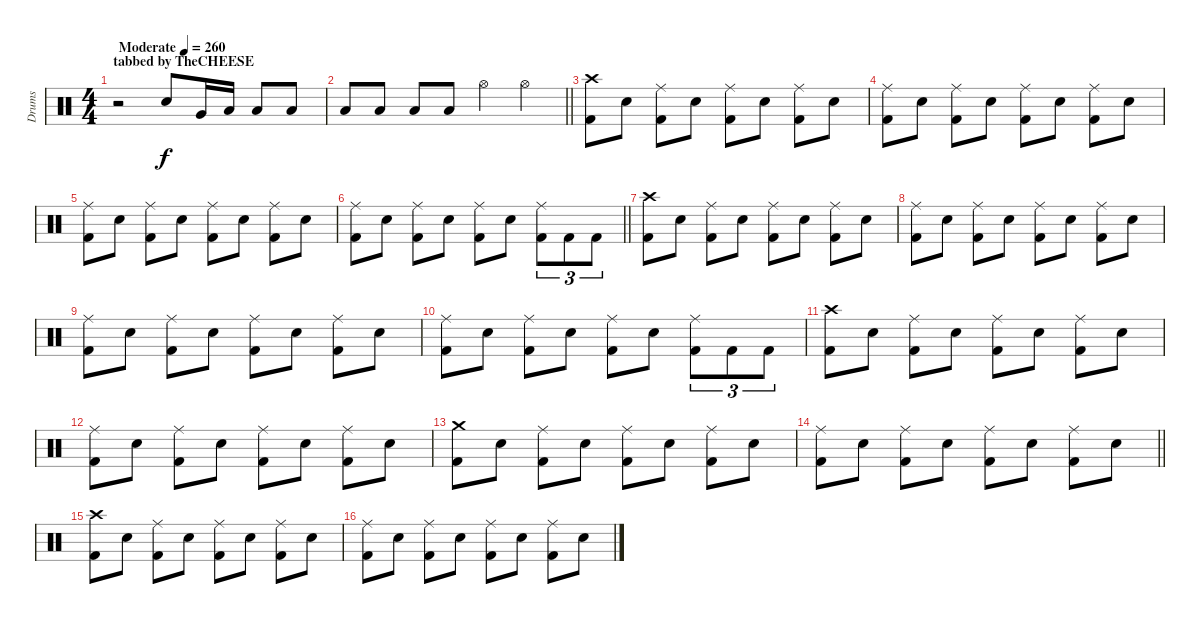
\track ("Drums" "Drums") {instrument percussion}
\staff {score}
\articulation defaults
\ts (4 4)
\section ("" "tabbed by TheCHEESE")
\tempo (260 "Moderate")
\clef neutral
\ks c
r.2{dy f} "Electric Snare (hit)".8 "Very Low Tom (hit)".16 "Low Floor Tom (hit)".16 "Low Tom (hit)".8 "Low Tom (hit)".8 |
\barLineRight lightlight "Low Floor Tom (hit)".8 "Low Floor Tom (hit)".8 "Low Floor Tom (hit)".8 "Low Floor Tom (hit)".8 "Hi-Hat (open)".4 "Hi-Hat (open)".4
|
("Crash high (hit)" "Kick (hit) 2").8 "Electric Snare (hit)".8 ("Ride (middle)" "Kick (hit) 2").8 "Electric Snare (hit)".8 ("Ride (middle)" "Kick (hit) 2").8 "Electric Snare (hit)".8 ("Ride (middle)" "Kick (hit) 2").8 "Electric Snare (hit)".8 |
("Ride (middle)" "Kick (hit) 2").8 "Electric Snare (hit)".8 ("Ride (middle)" "Kick (hit) 2").8 "Electric Snare (hit)".8 ("Ride (middle)" "Kick (hit) 2").8 "Electric Snare (hit)".8 ("Ride (middle)" "Kick (hit) 2").8 "Electric Snare (hit)".8 |
("Ride (middle)" "Kick (hit) 2").8 "Electric Snare (hit)".8 ("Ride (middle)" "Kick (hit) 2").8 "Electric Snare (hit)".8 ("Ride (middle)" "Kick (hit) 2").8 "Electric Snare (hit)".8 ("Ride (middle)" "Kick (hit) 2").8 "Electric Snare (hit)".8 |
\barLineRight lightlight
("Ride (middle)" "Kick (hit) 2").8 "Electric Snare (hit)".8 ("Ride (middle)" "Kick (hit) 2").8 "Electric Snare (hit)".8 ("Ride (middle)" "Kick (hit) 2").8 "Electric Snare (hit)".8 ("Ride (middle)" "Kick (hit) 2").8{tu (3 2)} "Kick (hit) 2".8{tu (3 2)} "Kick (hit) 2".8{tu (3 2)} |
("Crash high (hit)" "Kick (hit) 2").8 "Electric Snare (hit)".8 ("Ride (middle)" "Kick (hit) 2").8 "Electric Snare (hit)".8 ("Ride (middle)" "Kick (hit) 2").8 "Electric Snare (hit)".8 ("Ride (middle)" "Kick (hit) 2").8 "Electric Snare (hit)".8 |
("Ride (middle)" "Kick (hit) 2").8 "Electric Snare (hit)".8 ("Ride (middle)" "Kick (hit) 2").8 "Electric Snare (hit)".8 ("Ride (middle)" "Kick (hit) 2").8 "Electric Snare (hit)".8 ("Ride (middle)" "Kick (hit) 2").8 "Electric Snare (hit)".8 |
("Ride (middle)" "Kick (hit) 2").8 "Electric Snare (hit)".8 ("Ride (middle)" "Kick (hit) 2").8 "Electric Snare (hit)".8 ("Ride (middle)" "Kick (hit) 2").8 "Electric Snare (hit)".8 ("Ride (middle)" "Kick (hit) 2").8 "Electric Snare (hit)".8 |
("Ride (middle)" "Kick (hit) 2").8 "Electric Snare (hit)".8 ("Ride (middle)" "Kick (hit) 2").8 "Electric Snare (hit)".8 ("Ride (middle)" "Kick (hit) 2").8 "Electric Snare (hit)".8 ("Ride (middle)" "Kick (hit) 2").8{tu (3 2)} "Kick (hit) 2".8{tu (3 2)} "Kick (hit) 2".8{tu (3 2)} |
("Crash high (hit)" "Kick (hit) 2").8 "Electric Snare (hit)".8 ("Ride (middle)" "Kick (hit) 2").8 "Electric Snare (hit)".8 ("Ride (middle)" "Kick (hit) 2").8 "Electric Snare (hit)".8 ("Ride (middle)" "Kick (hit) 2").8 "Electric Snare (hit)".8 |
("Ride (middle)" "Kick (hit) 2").8 "Electric Snare (hit)".8 ("Ride (middle)" "Kick (hit) 2").8 "Electric Snare (hit)".8 ("Ride (middle)" "Kick (hit) 2").8 "Electric Snare (hit)".8 ("Ride (middle)" "Kick (hit) 2").8 "Electric Snare (hit)".8 |
("Crash medium (hit)" "Kick (hit) 2").8 "Electric Snare (hit)".8 ("Ride (middle)" "Kick (hit) 2").8 "Electric Snare (hit)".8 ("Ride (middle)" "Kick (hit) 2").8 "Electric Snare (hit)".8 ("Ride (middle)" "Kick (hit) 2").8 "Electric Snare (hit)".8 |
\barLineRight lightlight
("Ride (middle)" "Kick (hit) 2").8 "Electric Snare (hit)".8 ("Ride (middle)" "Kick (hit) 2").8 "Electric Snare (hit)".8 ("Ride (middle)" "Kick (hit) 2").8 "Electric Snare (hit)".8 ("Ride (middle)" "Kick (hit) 2").8 "Electric Snare (hit)".8 |
("Crash high (hit)" "Kick (hit) 2").8 "Electric Snare (hit)".8 ("Ride (middle)" "Kick (hit) 2").8 "Electric Snare (hit)".8 ("Ride (middle)" "Kick (hit) 2").8 "Electric Snare (hit)".8 ("Ride (middle)" "Kick (hit) 2").8 "Electric Snare (hit)".8 |
("Ride (middle)" "Kick (hit) 2").8 "Electric Snare (hit)".8 ("Ride (middle)" "Kick (hit) 2").8 "Electric Snare (hit)".8 ("Ride (middle)" "Kick (hit) 2").8 "Electric Snare (hit)".8 ("Ride (middle)" "Kick (hit) 2").8 "Electric Snare (hit)".8
